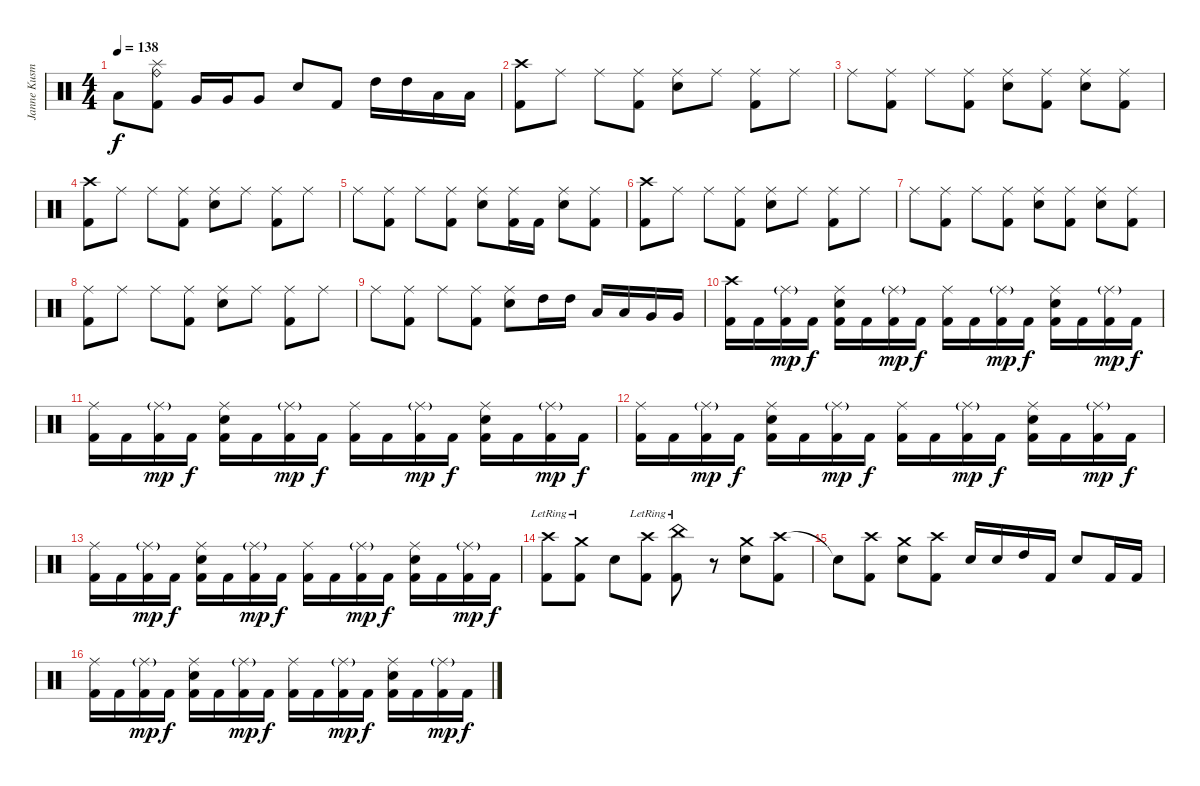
\track ("Janne Kusmin" "Janne Kusm") {instrument percussion}
\staff {score}
\articulation defaults
\ts (4 4)
\tempo 138
\clef neutral
\ks c "Low Tom (hit)".8{dy f}
("Ride (bell)" "Splash (hit)" "Kick (hit) 2").8 "Very Low Tom (hit)".16 "Very Low Tom (hit)".16 "Very Low Tom (hit)".8 "Electric Snare (hit)".8 "Kick (hit) 2".8 "High Tom (hit)".16 "High Tom (hit)".16 "Low Tom (hit)".16 "Low Tom (hit)".16 |
("Crash high (hit)" "Kick (hit) 2").8 "Ride (middle)".8 "Ride (middle)".8 ("Ride (middle)" "Kick (hit) 2").8 ("Ride (middle)" "Electric Snare (hit)").8 "Ride (middle)".8 ("Ride (middle)" "Kick (hit) 2").8 "Ride (middle)".8 |
"Ride (middle)".8 ("Ride (middle)" "Kick (hit) 2").8 "Ride (middle)".8 ("Ride (middle)" "Kick (hit) 2").8 ("Ride (middle)" "Electric Snare (hit)").8 ("Ride (middle)" "Kick (hit) 2").8 ("Ride (middle)" "Electric Snare (hit)").8 ("Ride (middle)" "Kick (hit) 2").8 |
("Crash high (hit)" "Kick (hit) 2").8 "Ride (middle)".8 "Ride (middle)".8 ("Ride (middle)" "Kick (hit) 2").8 ("Ride (middle)" "Electric Snare (hit)").8 "Ride (middle)".8 ("Ride (middle)" "Kick (hit) 2").8 "Ride (middle)".8 |
"Ride (middle)".8 ("Ride (middle)" "Kick (hit) 2").8 "Ride (middle)".8 ("Ride (middle)" "Kick (hit) 2").8 ("Ride (middle)" "Electric Snare (hit)").8 ("Ride (middle)" "Kick (hit) 2").16 "Kick (hit) 2".16 ("Ride (middle)" "Electric Snare (hit)").8 ("Ride (middle)" "Kick (hit) 2").8 |
("Crash high (hit)" "Kick (hit) 2").8 "Ride (middle)".8 "Ride (middle)".8 ("Ride (middle)" "Kick (hit) 2").8 ("Ride (middle)" "Electric Snare (hit)").8 "Ride (middle)".8 ("Ride (middle)" "Kick (hit) 2").8 "Ride (middle)".8 |
"Ride (middle)".8 ("Ride (middle)" "Kick (hit) 2").8 "Ride (middle)".8 ("Ride (middle)" "Kick (hit) 2").8 ("Ride (middle)" "Electric Snare (hit)").8 ("Ride (middle)" "Kick (hit) 2").8 ("Ride (middle)" "Electric Snare (hit)").8 ("Ride (middle)" "Kick (hit) 2").8 |
("Ride (middle)" "Kick (hit) 2").8 "Ride (middle)".8 "Ride (middle)".8 ("Ride (middle)" "Kick (hit) 2").8 ("Ride (middle)" "Electric Snare (hit)").8 "Ride (middle)".8 ("Ride (middle)" "Kick (hit) 2").8 "Ride (middle)".8 |
"Ride (middle)".8 ("Ride (middle)" "Kick (hit) 2").8 "Ride (middle)".8 ("Ride (middle)" "Kick (hit) 2").8 ("Ride (middle)" "Electric Snare (hit)").8 "High Tom (hit)".16 "High Tom (hit)".16 "Low Tom (hit)".16 "Low Tom (hit)".16 "Very Low Tom (hit)".16 "Very Low Tom (hit)".16 |
("Crash high (hit)" "Kick (hit) 2").16 "Kick (hit) 2".16 ("Ride (middle)"{g} "Kick (hit) 2").16{dy mp} "Kick (hit) 2".16{dy f} ("Ride (middle)" "Electric Snare (hit)" "Kick (hit) 2").16 "Kick (hit) 2".16 ("Ride (middle)"{g} "Kick (hit) 2").16{dy mp} "Kick (hit) 2".16{dy f} ("Ride (middle)" "Kick (hit) 2").16 "Kick (hit) 2".16 ("Ride (middle)"{g} "Kick (hit) 2").16{dy mp} "Kick (hit) 2".16{dy f} ("Ride (middle)" "Electric Snare (hit)" "Kick (hit) 2").16 "Kick (hit) 2".16 ("Ride (middle)"{g} "Kick (hit) 2").16{dy mp} "Kick (hit) 2".16{dy f} |
("Ride (middle)" "Kick (hit) 2").16 "Kick (hit) 2".16 ("Ride (middle)"{g} "Kick (hit) 2").16{dy mp} "Kick (hit) 2".16{dy f} ("Ride (middle)" "Electric Snare (hit)" "Kick (hit) 2").16 "Kick (hit) 2".16 ("Ride (middle)"{g} "Kick (hit) 2").16{dy mp} "Kick (hit) 2".16{dy f} ("Ride (middle)" "Kick (hit) 2").16 "Kick (hit) 2".16 ("Ride (middle)"{g} "Kick (hit) 2").16{dy mp} "Kick (hit) 2".16{dy f} ("Ride (middle)" "Electric Snare (hit)" "Kick (hit) 2").16 "Kick (hit) 2".16 ("Ride (middle)"{g} "Kick (hit) 2").16{dy mp} "Kick (hit) 2".16{dy f} |
("Ride (middle)" "Kick (hit) 2").16 "Kick (hit) 2".16 ("Ride (middle)"{g} "Kick (hit) 2").16{dy mp} "Kick (hit) 2".16{dy f} ("Ride (middle)" "Electric Snare (hit)" "Kick (hit) 2").16 "Kick (hit) 2".16 ("Ride (middle)"{g} "Kick (hit) 2").16{dy mp} "Kick (hit) 2".16{dy f} ("Ride (middle)" "Kick (hit) 2").16 "Kick (hit) 2".16 ("Ride (middle)"{g} "Kick (hit) 2").16{dy mp} "Kick (hit) 2".16{dy f} ("Ride (middle)" "Electric Snare (hit)" "Kick (hit) 2").16 "Kick (hit) 2".16 ("Ride (middle)"{g} "Kick (hit) 2").16{dy mp} "Kick (hit) 2".16{dy f} |
("Ride (middle)" "Kick (hit) 2").16 "Kick (hit) 2".16 ("Ride (middle)"{g} "Kick (hit) 2").16{dy mp} "Kick (hit) 2".16{dy f} ("Ride (middle)" "Electric Snare (hit)" "Kick (hit) 2").16 "Kick (hit) 2".16 ("Ride (middle)"{g} "Kick (hit) 2").16{dy mp} "Kick (hit) 2".16{dy f} ("Ride (middle)" "Kick (hit) 2").16 "Kick (hit) 2".16 ("Ride (middle)"{g} "Kick (hit) 2").16{dy mp} "Kick (hit) 2".16{dy f} ("Ride (middle)" "Electric Snare (hit)" "Kick (hit) 2").16 "Kick (hit) 2".16 ("Ride (middle)"{g} "Kick (hit) 2").16{dy mp} "Kick (hit) 2".16{dy f} |
("Crash high (hit)"{lr} "Kick (hit) 2").8 ("Crash medium (hit)"{lr} "Kick (hit) 2").8 "Electric Snare (hit)".8 ("Crash high (hit)"{lr} "Kick (hit) 2").8 ("China (hit)"{lr} "Kick (hit) 2").8 r.8 ("Crash medium (hit)" "Electric Snare (hit)").8 ("Crash high (hit)" "Kick (hit) 2").8 |
"Snare (hit)"{t}.8 ("Crash high (hit)" "Kick (hit) 2").8 ("Crash medium (hit)" "Electric Snare (hit)").8 ("Crash high (hit)" "Kick (hit) 2").8 "Electric Snare (hit)".16 "Electric Snare (hit)".16 "High Tom (hit)".16 "Kick (hit) 2".16 "Electric Snare (hit)".8 "Kick (hit) 2".16 "Kick (hit) 2".16 |
("Ride (middle)" "Kick (hit) 2").16 "Kick (hit) 2".16 ("Ride (middle)"{g} "Kick (hit) 2").16{dy mp} "Kick (hit) 2".16{dy f} ("Ride (middle)" "Electric Snare (hit)" "Kick (hit) 2").16 "Kick (hit) 2".16 ("Ride (middle)"{g} "Kick (hit) 2").16{dy mp} "Kick (hit) 2".16{dy f} ("Ride (middle)" "Kick (hit) 2").16 "Kick (hit) 2".16 ("Ride (middle)"{g} "Kick (hit) 2").16{dy mp} "Kick (hit) 2".16{dy f} ("Ride (middle)" "Electric Snare (hit)" "Kick (hit) 2").16 "Kick (hit) 2".16 ("Ride (middle)"{g} "Kick (hit) 2").16{dy mp} "Kick (hit) 2".16{dy f}
